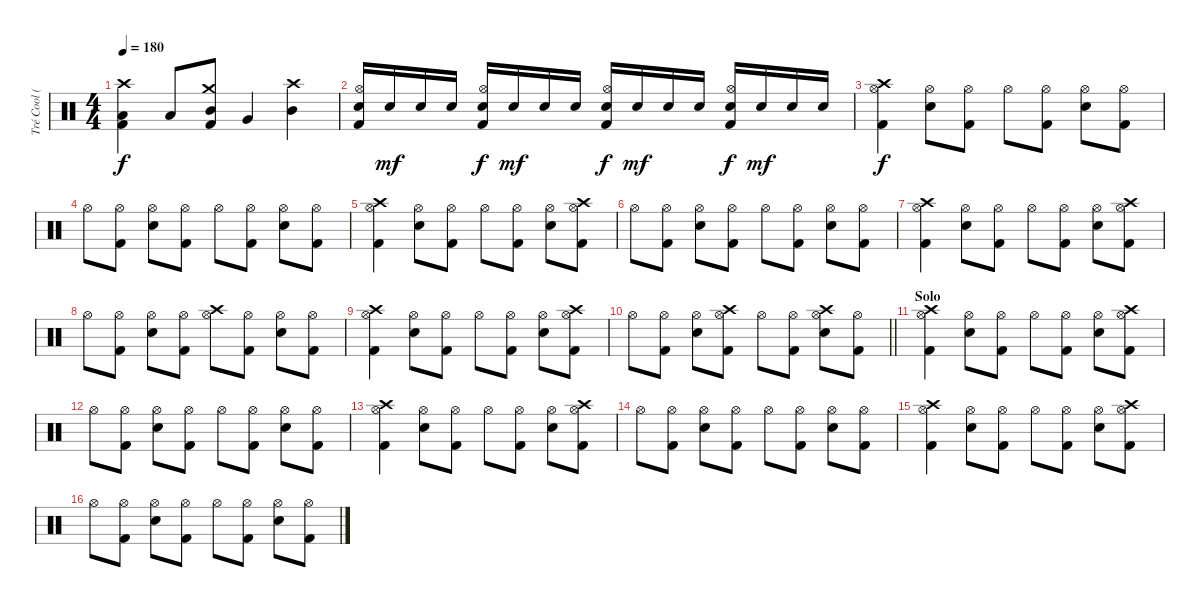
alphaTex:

\track ("Tré Cool (Drums)" "Tré Cool (") {instrument percussion}
\staff {score}
\articulation defaults
\ts (4 4)
\tempo 180
\clef neutral
\ks c
("Crash high (hit)" "Low Tom (hit)" "Kick (hit) 2").4{dy f} "Low Tom (hit)".8 ("Crash medium (hit)" "Mid Tom (hit)" "Kick (hit) 2").8 "Very Low Tom (hit)".4 ("Crash high (hit)" "Mid Tom (hit)").4 |
("Hi-Hat (open)" "Electric Snare (hit)" "Kick (hit) 2").16 "Electric Snare (hit)".16{dy mf} "Electric Snare (hit)".16 "Electric Snare (hit)".16 ("Hi-Hat (open)" "Electric Snare (hit)" "Kick (hit) 2").16{dy f} "Electric Snare (hit)".16{dy mf} "Electric Snare (hit)".16 "Electric Snare (hit)".16 ("Hi-Hat (open)" "Electric Snare (hit)" "Kick (hit) 2").16{dy f} "Electric Snare (hit)".16{dy mf} "Electric Snare (hit)".16 "Electric Snare (hit)".16 ("Hi-Hat (open)" "Electric Snare (hit)" "Kick (hit) 2").16{dy f} "Electric Snare (hit)".16{dy mf} "Electric Snare (hit)".16 "Electric Snare (hit)".16 |
("Crash high (hit)" "Hi-Hat (open)" "Kick (hit) 2").4{dy f} ("Hi-Hat (open)" "Electric Snare (hit)").8 ("Hi-Hat (open)" "Kick (hit) 2").8 "Hi-Hat (open)".8 ("Hi-Hat (open)" "Kick (hit) 2").8 ("Hi-Hat (open)" "Electric Snare (hit)").8 ("Hi-Hat (open)" "Kick (hit) 2").8 |
"Hi-Hat (open)".8 ("Hi-Hat (open)" "Kick (hit) 2").8 ("Hi-Hat (open)" "Electric Snare (hit)").8 ("Hi-Hat (open)" "Kick (hit) 2").8 "Hi-Hat (open)".8 ("Hi-Hat (open)" "Kick (hit) 2").8 ("Hi-Hat (open)" "Electric Snare (hit)").8 ("Hi-Hat (open)" "Kick (hit) 2").8 |
("Crash high (hit)" "Hi-Hat (open)" "Kick (hit) 2").4 ("Hi-Hat (open)" "Electric Snare (hit)").8 ("Hi-Hat (open)" "Kick (hit) 2").8 "Hi-Hat (open)".8 ("Hi-Hat (open)" "Kick (hit) 2").8 ("Hi-Hat (open)" "Electric Snare (hit)").8 ("Crash high (hit)" "Hi-Hat (open)" "Kick (hit) 2").8 |
"Hi-Hat (open)".8 ("Hi-Hat (open)" "Kick (hit) 2").8 ("Hi-Hat (open)" "Electric Snare (hit)").8 ("Hi-Hat (open)" "Kick (hit) 2").8 "Hi-Hat (open)".8 ("Hi-Hat (open)" "Kick (hit) 2").8 ("Hi-Hat (open)" "Electric Snare (hit)").8 ("Hi-Hat (open)" "Kick (hit) 2").8 |
("Crash high (hit)" "Hi-Hat (open)" "Kick (hit) 2").4 ("Hi-Hat (open)" "Electric Snare (hit)").8 ("Hi-Hat (open)" "Kick (hit) 2").8 "Hi-Hat (open)".8 ("Hi-Hat (open)" "Kick (hit) 2").8 ("Hi-Hat (open)" "Electric Snare (hit)").8 ("Crash high (hit)" "Hi-Hat (open)" "Kick (hit) 2").8 |
"Hi-Hat (open)".8 ("Hi-Hat (open)" "Kick (hit) 2").8 ("Hi-Hat (open)" "Electric Snare (hit)").8 ("Hi-Hat (open)" "Kick (hit) 2").8 ("Crash high (hit)" "Hi-Hat (open)").8 ("Hi-Hat (open)" "Kick (hit) 2").8 ("Hi-Hat (open)" "Electric Snare (hit)").8 ("Hi-Hat (open)" "Kick (hit) 2").8 |
("Crash high (hit)" "Hi-Hat (open)" "Kick (hit) 2").4 ("Hi-Hat (open)" "Electric Snare (hit)").8 ("Hi-Hat (open)" "Kick (hit) 2").8 "Hi-Hat (open)".8 ("Hi-Hat (open)" "Kick (hit) 2").8 ("Hi-Hat (open)" "Electric Snare (hit)").8 ("Crash high (hit)" "Hi-Hat (open)" "Kick (hit) 2").8 |
\barLineRight lightlight "Hi-Hat (open)".8
("Hi-Hat (open)" "Kick (hit) 2").8 ("Hi-Hat (open)" "Electric Snare (hit)").8 ("Crash high (hit)" "Hi-Hat (open)" "Kick (hit) 2").8 "Hi-Hat (open)".8 ("Hi-Hat (open)" "Kick (hit) 2").8 ("Crash high (hit)" "Hi-Hat (open)" "Electric Snare (hit)").8 ("Hi-Hat (open)" "Kick (hit) 2").8 |
\section ("" "Solo")
("Crash high (hit)" "Hi-Hat (open)" "Kick (hit) 2").4 ("Hi-Hat (open)" "Electric Snare (hit)").8 ("Hi-Hat (open)" "Kick (hit) 2").8 "Hi-Hat (open)".8 ("Hi-Hat (open)" "Kick (hit) 2").8 ("Hi-Hat (open)" "Electric Snare (hit)").8 ("Crash high (hit)" "Hi-Hat (open)" "Kick (hit) 2").8 |
"Hi-Hat (open)".8 ("Hi-Hat (open)" "Kick (hit) 2").8 ("Hi-Hat (open)" "Electric Snare (hit)").8 ("Hi-Hat (open)" "Kick (hit) 2").8 "Hi-Hat (open)".8 ("Hi-Hat (open)" "Kick (hit) 2").8 ("Hi-Hat (open)" "Electric Snare (hit)").8 ("Hi-Hat (open)" "Kick (hit) 2").8 |
("Crash high (hit)" "Hi-Hat (open)" "Kick (hit) 2").4 ("Hi-Hat (open)" "Electric Snare (hit)").8 ("Hi-Hat (open)" "Kick (hit) 2").8 "Hi-Hat (open)".8 ("Hi-Hat (open)" "Kick (hit) 2").8 ("Hi-Hat (open)" "Electric Snare (hit)").8 ("Crash high (hit)" "Hi-Hat (open)" "Kick (hit) 2").8 |
"Hi-Hat (open)".8 ("Hi-Hat (open)" "Kick (hit) 2").8 ("Hi-Hat (open)" "Electric Snare (hit)").8 ("Hi-Hat (open)" "Kick (hit) 2").8 "Hi-Hat (open)".8 ("Hi-Hat (open)" "Kick (hit) 2").8 ("Hi-Hat (open)" "Electric Snare (hit)").8 ("Hi-Hat (open)" "Kick (hit) 2").8 |
("Crash high (hit)" "Hi-Hat (open)" "Kick (hit) 2").4 ("Hi-Hat (open)" "Electric Snare (hit)").8 ("Hi-Hat (open)" "Kick (hit) 2").8 "Hi-Hat (open)".8 ("Hi-Hat (open)" "Kick (hit) 2").8 ("Hi-Hat (open)" "Electric Snare (hit)").8 ("Crash high (hit)" "Hi-Hat (open)" "Kick (hit) 2").8 |
"Hi-Hat (open)".8 ("Hi-Hat (open)" "Kick (hit) 2").8 ("Hi-Hat (open)" "Electric Snare (hit)").8 ("Hi-Hat (open)" "Kick (hit) 2").8 "Hi-Hat (open)".8 ("Hi-Hat (open)" "Kick (hit) 2").8 ("Hi-Hat (open)" "Electric Snare (hit)").8 ("Hi-Hat (open)" "Kick (hit) 2").8
